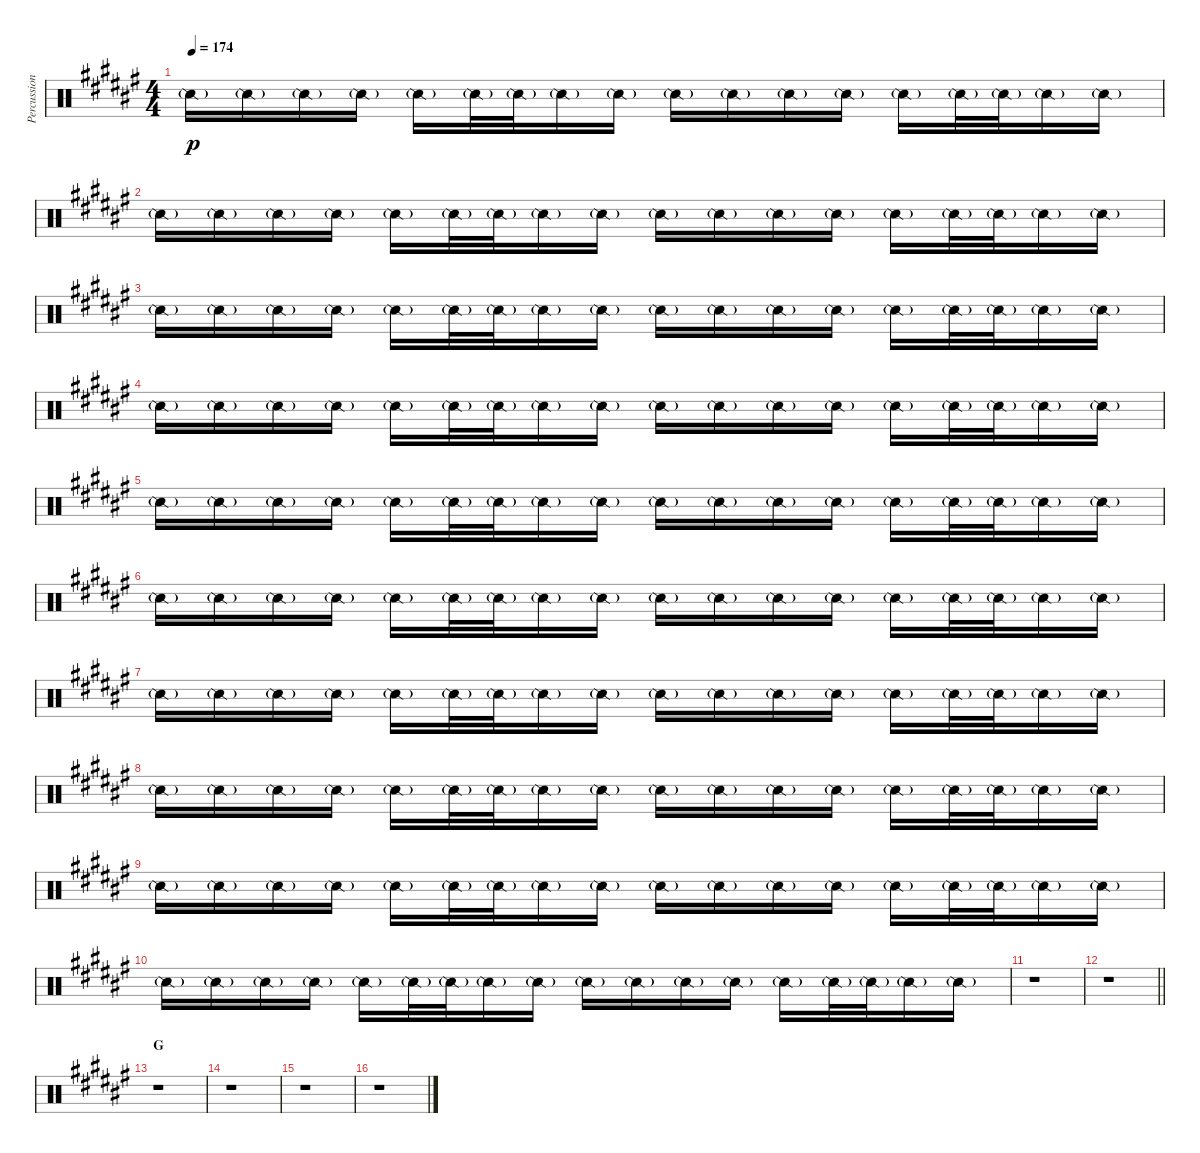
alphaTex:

\track ("Percussion I" "Percussion") {instrument percussion}
\staff {score}
\articulation defaults
\ts (4 4)
\tempo 174
\clef neutral
\ks f# "Snare (side stick) 2"{g}.16{dy p} "Snare (side stick) 2"{g}.16 "Snare (side stick) 2"{g}.16 "Snare (side stick) 2"{g}.16 "Snare (side stick) 2"{g}.16 "Snare (side stick) 2"{g}.32 "Snare (side stick) 2"{g}.32 "Snare (side stick) 2"{g}.16 "Snare (side stick) 2"{g}.16 "Snare (side stick) 2"{g}.16 "Snare (side stick) 2"{g}.16 "Snare (side stick) 2"{g}.16 "Snare (side stick) 2"{g}.16 "Snare (side stick) 2"{g}.16 "Snare (side stick) 2"{g}.32 "Snare (side stick) 2"{g}.32 "Snare (side stick) 2"{g}.16 "Snare (side stick) 2"{g}.16
|
"Snare (side stick) 2"{g}.16 "Snare (side stick) 2"{g}.16 "Snare (side stick) 2"{g}.16 "Snare (side stick) 2"{g}.16 "Snare (side stick) 2"{g}.16 "Snare (side stick) 2"{g}.32 "Snare (side stick) 2"{g}.32 "Snare (side stick) 2"{g}.16 "Snare (side stick) 2"{g}.16 "Snare (side stick) 2"{g}.16 "Snare (side stick) 2"{g}.16 "Snare (side stick) 2"{g}.16 "Snare (side stick) 2"{g}.16 "Snare (side stick) 2"{g}.16 "Snare (side stick) 2"{g}.32 "Snare (side stick) 2"{g}.32 "Snare (side stick) 2"{g}.16 "Snare (side stick) 2"{g}.16 |
"Snare (side stick) 2"{g}.16 "Snare (side stick) 2"{g}.16 "Snare (side stick) 2"{g}.16 "Snare (side stick) 2"{g}.16 "Snare (side stick) 2"{g}.16 "Snare (side stick) 2"{g}.32 "Snare (side stick) 2"{g}.32 "Snare (side stick) 2"{g}.16 "Snare (side stick) 2"{g}.16 "Snare (side stick) 2"{g}.16 "Snare (side stick) 2"{g}.16 "Snare (side stick) 2"{g}.16 "Snare (side stick) 2"{g}.16 "Snare (side stick) 2"{g}.16 "Snare (side stick) 2"{g}.32 "Snare (side stick) 2"{g}.32 "Snare (side stick) 2"{g}.16 "Snare (side stick) 2"{g}.16 |
"Snare (side stick) 2"{g}.16 "Snare (side stick) 2"{g}.16 "Snare (side stick) 2"{g}.16 "Snare (side stick) 2"{g}.16 "Snare (side stick) 2"{g}.16 "Snare (side stick) 2"{g}.32 "Snare (side stick) 2"{g}.32 "Snare (side stick) 2"{g}.16 "Snare (side stick) 2"{g}.16 "Snare (side stick) 2"{g}.16 "Snare (side stick) 2"{g}.16 "Snare (side stick) 2"{g}.16 "Snare (side stick) 2"{g}.16 "Snare (side stick) 2"{g}.16 "Snare (side stick) 2"{g}.32 "Snare (side stick) 2"{g}.32 "Snare (side stick) 2"{g}.16 "Snare (side stick) 2"{g}.16 |
"Snare (side stick) 2"{g}.16 "Snare (side stick) 2"{g}.16 "Snare (side stick) 2"{g}.16 "Snare (side stick) 2"{g}.16 "Snare (side stick) 2"{g}.16 "Snare (side stick) 2"{g}.32 "Snare (side stick) 2"{g}.32 "Snare (side stick) 2"{g}.16 "Snare (side stick) 2"{g}.16 "Snare (side stick) 2"{g}.16 "Snare (side stick) 2"{g}.16 "Snare (side stick) 2"{g}.16 "Snare (side stick) 2"{g}.16 "Snare (side stick) 2"{g}.16 "Snare (side stick) 2"{g}.32 "Snare (side stick) 2"{g}.32 "Snare (side stick) 2"{g}.16 "Snare (side stick) 2"{g}.16 |
"Snare (side stick) 2"{g}.16 "Snare (side stick) 2"{g}.16 "Snare (side stick) 2"{g}.16 "Snare (side stick) 2"{g}.16 "Snare (side stick) 2"{g}.16 "Snare (side stick) 2"{g}.32 "Snare (side stick) 2"{g}.32 "Snare (side stick) 2"{g}.16 "Snare (side stick) 2"{g}.16 "Snare (side stick) 2"{g}.16 "Snare (side stick) 2"{g}.16 "Snare (side stick) 2"{g}.16 "Snare (side stick) 2"{g}.16 "Snare (side stick) 2"{g}.16 "Snare (side stick) 2"{g}.32 "Snare (side stick) 2"{g}.32 "Snare (side stick) 2"{g}.16 "Snare (side stick) 2"{g}.16 |
"Snare (side stick) 2"{g}.16 "Snare (side stick) 2"{g}.16 "Snare (side stick) 2"{g}.16 "Snare (side stick) 2"{g}.16 "Snare (side stick) 2"{g}.16 "Snare (side stick) 2"{g}.32 "Snare (side stick) 2"{g}.32 "Snare (side stick) 2"{g}.16 "Snare (side stick) 2"{g}.16 "Snare (side stick) 2"{g}.16 "Snare (side stick) 2"{g}.16 "Snare (side stick) 2"{g}.16 "Snare (side stick) 2"{g}.16 "Snare (side stick) 2"{g}.16 "Snare (side stick) 2"{g}.32 "Snare (side stick) 2"{g}.32 "Snare (side stick) 2"{g}.16 "Snare (side stick) 2"{g}.16 |
"Snare (side stick) 2"{g}.16 "Snare (side stick) 2"{g}.16 "Snare (side stick) 2"{g}.16 "Snare (side stick) 2"{g}.16 "Snare (side stick) 2"{g}.16 "Snare (side stick) 2"{g}.32 "Snare (side stick) 2"{g}.32 "Snare (side stick) 2"{g}.16 "Snare (side stick) 2"{g}.16 "Snare (side stick) 2"{g}.16 "Snare (side stick) 2"{g}.16 "Snare (side stick) 2"{g}.16 "Snare (side stick) 2"{g}.16 "Snare (side stick) 2"{g}.16 "Snare (side stick) 2"{g}.32 "Snare (side stick) 2"{g}.32 "Snare (side stick) 2"{g}.16 "Snare (side stick) 2"{g}.16 |
"Snare (side stick) 2"{g}.16 "Snare (side stick) 2"{g}.16 "Snare (side stick) 2"{g}.16 "Snare (side stick) 2"{g}.16 "Snare (side stick) 2"{g}.16 "Snare (side stick) 2"{g}.32 "Snare (side stick) 2"{g}.32 "Snare (side stick) 2"{g}.16 "Snare (side stick) 2"{g}.16 "Snare (side stick) 2"{g}.16 "Snare (side stick) 2"{g}.16 "Snare (side stick) 2"{g}.16 "Snare (side stick) 2"{g}.16 "Snare (side stick) 2"{g}.16 "Snare (side stick) 2"{g}.32 "Snare (side stick) 2"{g}.32 "Snare (side stick) 2"{g}.16 "Snare (side stick) 2"{g}.16 |
"Snare (side stick) 2"{g}.16 "Snare (side stick) 2"{g}.16 "Snare (side stick) 2"{g}.16 "Snare (side stick) 2"{g}.16 "Snare (side stick) 2"{g}.16 "Snare (side stick) 2"{g}.32 "Snare (side stick) 2"{g}.32 "Snare (side stick) 2"{g}.16 "Snare (side stick) 2"{g}.16 "Snare (side stick) 2"{g}.16 "Snare (side stick) 2"{g}.16 "Snare (side stick) 2"{g}.16 "Snare (side stick) 2"{g}.16 "Snare (side stick) 2"{g}.16 "Snare (side stick) 2"{g}.32 "Snare (side stick) 2"{g}.32 "Snare (side stick) 2"{g}.16 "Snare (side stick) 2"{g}.16 |
r.1 |
\barLineRight lightlight
r.1 |
\section ("" "G")
r.1 |
r.1 |
r.1 |
r.1
